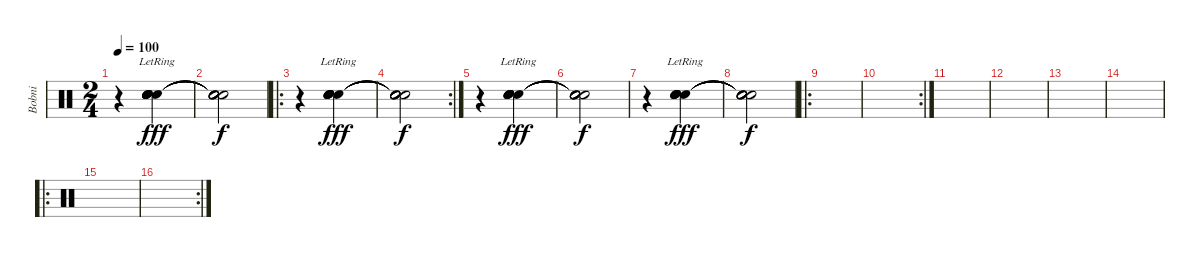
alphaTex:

\track ("Bobni" "Bobni") {instrument percussion}
\staff {score}
\articulation defaults
\ts (2 4)
\tempo 100
\clef neutral
\ks c
r.4{dy f} ("Snare (hit) 2"{lr} "Snare (hit) 2"{lr} "Snare (hit) 2"{lr} "Snare (hit) 2"{lr} "Snare (hit) 2"{lr} "Snare (hit) 2"{lr}).4{dy fff} |
("Snare (hit)"{t} "Snare (hit)"{t} "Snare (hit)"{t} "Snare (hit)"{t} "Snare (hit)"{t} "Snare (hit)"{t}).2{dy f} |
\ro
r.4 ("Snare (hit) 2"{lr} "Snare (hit) 2"{lr} "Snare (hit) 2"{lr} "Snare (hit) 2"{lr} "Snare (hit) 2"{lr} "Snare (hit) 2"{lr}).4{dy fff} |
\rc 2
("Snare (hit)"{t} "Snare (hit)"{t} "Snare (hit)"{t} "Snare (hit)"{t} "Snare (hit)"{t} "Snare (hit)"{t}).2{dy f} |
r.4 ("Snare (hit) 2"{lr} "Snare (hit) 2"{lr} "Snare (hit) 2"{lr} "Snare (hit) 2"{lr} "Snare (hit) 2"{lr} "Snare (hit) 2"{lr}).4{dy fff} |
("Snare (hit)"{t} "Snare (hit)"{t} "Snare (hit)"{t} "Snare (hit)"{t} "Snare (hit)"{t} "Snare (hit)"{t}).2{dy f} |
r.4 ("Snare (hit) 2"{lr} "Snare (hit) 2"{lr} "Snare (hit) 2"{lr} "Snare (hit) 2"{lr} "Snare (hit) 2"{lr} "Snare (hit) 2"{lr}).4{dy fff} |
("Snare (hit)"{t} "Snare (hit)"{t} "Snare (hit)"{t} "Snare (hit)"{t} "Snare (hit)"{t} "Snare (hit)"{t}).2{dy f} |
\ro
|
\rc 2
|
|
|
|
|
\ro
|
\rc 2
